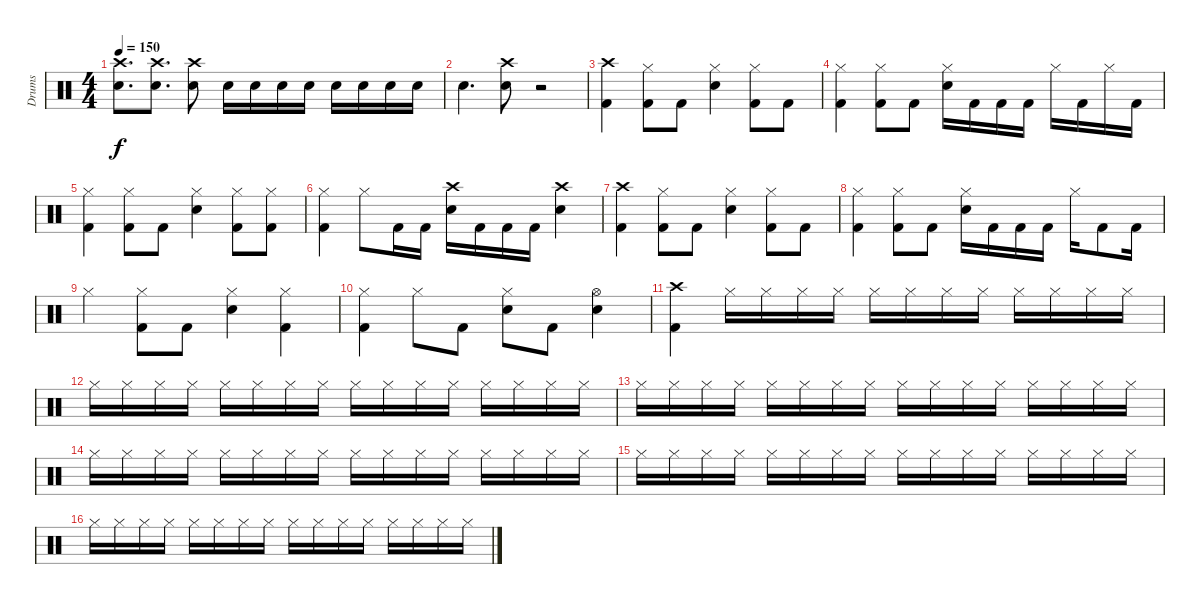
\track ("Drums" "Drums") {instrument percussion}
\staff {score}
\articulation defaults
\ts (4 4)
\tempo 150
\clef neutral
\ks c
("Snare (hit) 2" "Crash high (hit)").8{d dy f} ("Snare (hit) 2" "Crash high (hit)").8{d} ("Snare (hit) 2" "Crash high (hit)").8 "Snare (hit) 2".16 "Snare (hit) 2".16 "Snare (hit) 2".16 "Snare (hit) 2".16 "Snare (hit) 2".16 "Snare (hit) 2".16 "Snare (hit) 2".16 "Snare (hit) 2".16 |
"Snare (hit) 2".4{d} ("Snare (hit) 2" "Crash high (hit)").8 r.2 |
("Crash high (hit)" "Kick (hit) 2").4 ("Hi-Hat (closed)" "Kick (hit) 2").8 "Kick (hit) 2".8 ("Hi-Hat (closed)" "Snare (hit) 2").4 ("Hi-Hat (closed)" "Kick (hit) 2").8 "Kick (hit) 2".8 |
("Hi-Hat (closed)" "Kick (hit) 2").4 ("Hi-Hat (closed)" "Kick (hit) 2").8 "Kick (hit) 2".8 ("Snare (hit) 2" "Hi-Hat (closed)").16 "Kick (hit) 2".16 "Kick (hit) 2".16 "Kick (hit) 2".16 "Hi-Hat (closed)".16 "Kick (hit) 2".16 "Hi-Hat (closed)".16 "Kick (hit) 2".16 |
("Hi-Hat (closed)" "Kick (hit) 2").4 ("Hi-Hat (closed)" "Kick (hit) 2").8 "Kick (hit) 2".8 ("Hi-Hat (closed)" "Snare (hit) 2").4 ("Hi-Hat (closed)" "Kick (hit) 2").8 ("Hi-Hat (closed)" "Kick (hit) 2").8 |
("Hi-Hat (closed)" "Kick (hit) 2").4 "Hi-Hat (closed)".8 "Kick (hit) 2".16 "Kick (hit) 2".16 ("Crash high (hit)" "Snare (hit) 2").16 "Kick (hit) 2".16 "Kick (hit) 2".16 "Kick (hit) 2".16 ("Crash high (hit)" "Snare (hit) 2").4 |
("Crash high (hit)" "Kick (hit) 2").4 ("Hi-Hat (closed)" "Kick (hit) 2").8 "Kick (hit) 2".8 ("Hi-Hat (closed)" "Snare (hit) 2").4 ("Hi-Hat (closed)" "Kick (hit) 2").8 "Kick (hit) 2".8 |
("Hi-Hat (closed)" "Kick (hit) 2").4 ("Hi-Hat (closed)" "Kick (hit) 2").8 "Kick (hit) 2".8 ("Snare (hit) 2" "Hi-Hat (closed)").16 "Kick (hit) 2".16 "Kick (hit) 2".16 "Kick (hit) 2".16 "Hi-Hat (closed)".16 "Kick (hit) 2".8 "Kick (hit) 2".16 |
"Hi-Hat (closed)".4 ("Hi-Hat (closed)" "Kick (hit) 2").8 "Kick (hit) 2".8 ("Hi-Hat (closed)" "Snare (hit) 2").4 ("Hi-Hat (closed)" "Kick (hit) 2").4 |
("Hi-Hat (closed)" "Kick (hit) 2").4 "Hi-Hat (closed)".8 "Kick (hit) 2".8 ("Hi-Hat (closed)" "Snare (hit) 2").8 "Kick (hit) 2".8 ("Hi-Hat (open)" "Snare (hit) 2").4 |
("Kick (hit) 2" "Crash high (hit)").4 "Hi-Hat (closed)".16 "Hi-Hat (closed)".16 "Hi-Hat (closed)".16 "Hi-Hat (closed)".16 "Hi-Hat (closed)".16 "Hi-Hat (closed)".16 "Hi-Hat (closed)".16 "Hi-Hat (closed)".16 "Hi-Hat (closed)".16 "Hi-Hat (closed)".16 "Hi-Hat (closed)".16 "Hi-Hat (closed)".16 |
"Hi-Hat (closed)".16 "Hi-Hat (closed)".16 "Hi-Hat (closed)".16 "Hi-Hat (closed)".16 "Hi-Hat (closed)".16 "Hi-Hat (closed)".16 "Hi-Hat (closed)".16 "Hi-Hat (closed)".16 "Hi-Hat (closed)".16 "Hi-Hat (closed)".16 "Hi-Hat (closed)".16 "Hi-Hat (closed)".16 "Hi-Hat (closed)".16 "Hi-Hat (closed)".16 "Hi-Hat (closed)".16 "Hi-Hat (closed)".16 |
"Hi-Hat (closed)".16 "Hi-Hat (closed)".16 "Hi-Hat (closed)".16 "Hi-Hat (closed)".16 "Hi-Hat (closed)".16 "Hi-Hat (closed)".16 "Hi-Hat (closed)".16 "Hi-Hat (closed)".16 "Hi-Hat (closed)".16 "Hi-Hat (closed)".16 "Hi-Hat (closed)".16 "Hi-Hat (closed)".16 "Hi-Hat (closed)".16 "Hi-Hat (closed)".16 "Hi-Hat (closed)".16 "Hi-Hat (closed)".16 |
"Hi-Hat (closed)".16 "Hi-Hat (closed)".16 "Hi-Hat (closed)".16 "Hi-Hat (closed)".16 "Hi-Hat (closed)".16 "Hi-Hat (closed)".16 "Hi-Hat (closed)".16 "Hi-Hat (closed)".16 "Hi-Hat (closed)".16 "Hi-Hat (closed)".16 "Hi-Hat (closed)".16 "Hi-Hat (closed)".16 "Hi-Hat (closed)".16 "Hi-Hat (closed)".16 "Hi-Hat (closed)".16 "Hi-Hat (closed)".16 |
"Hi-Hat (closed)".16 "Hi-Hat (closed)".16 "Hi-Hat (closed)".16 "Hi-Hat (closed)".16 "Hi-Hat (closed)".16 "Hi-Hat (closed)".16 "Hi-Hat (closed)".16 "Hi-Hat (closed)".16 "Hi-Hat (closed)".16 "Hi-Hat (closed)".16 "Hi-Hat (closed)".16 "Hi-Hat (closed)".16 "Hi-Hat (closed)".16 "Hi-Hat (closed)".16 "Hi-Hat (closed)".16 "Hi-Hat (closed)".16 |
"Hi-Hat (closed)".16 "Hi-Hat (closed)".16 "Hi-Hat (closed)".16 "Hi-Hat (closed)".16 "Hi-Hat (closed)".16 "Hi-Hat (closed)".16 "Hi-Hat (closed)".16 "Hi-Hat (closed)".16 "Hi-Hat (closed)".16 "Hi-Hat (closed)".16 "Hi-Hat (closed)".16 "Hi-Hat (closed)".16 "Hi-Hat (closed)".16 "Hi-Hat (closed)".16 "Hi-Hat (closed)".16 "Hi-Hat (closed)".16
